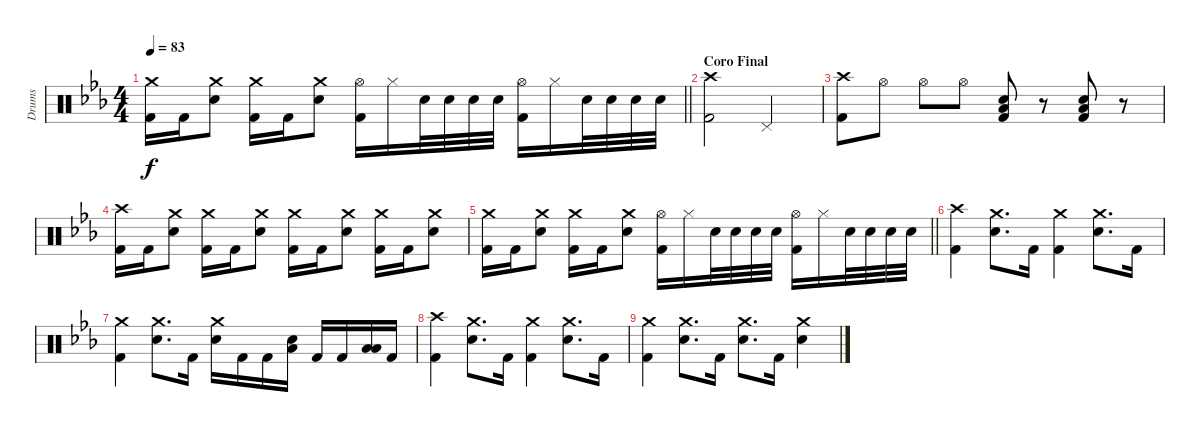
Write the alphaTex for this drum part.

\track ("Drums" "Drums") {instrument percussion}
\staff {score}
\articulation defaults
\ts (4 4)
\tempo 83
\clef neutral
\barLineRight lightlight
\ks eb
("Crash medium (hit)" "Kick (hit) 2").16{dy f} "Kick (hit) 2".16 ("Crash medium (hit)" "Snare (hit) 2").8 ("Crash medium (hit)" "Kick (hit) 2").16 "Kick (hit) 2".16 ("Crash medium (hit)" "Snare (hit) 2").8 ("Hi-Hat (open)" "Kick (hit) 2").16 "Hi-Hat (closed)".16 "Snare (hit) 2".32 "Snare (hit) 2".32 "Snare (hit) 2".32 "Snare (hit) 2".32 ("Hi-Hat (open)" "Kick (hit) 2").16 "Hi-Hat (closed)".16 "Snare (hit) 2".32 "Snare (hit) 2".32 "Snare (hit) 2".32 "Snare (hit) 2".32 |
\section ("" "Coro Final")
("Crash high (hit)" "Kick (hit) 2").2 "Pedal Hi-Hat (hit)".2 |
("Crash high (hit)" "Kick (hit) 2").8 "Hi-Hat (open)".8 "Hi-Hat (open)".8 "Hi-Hat (open)".8 ("Low Floor Tom (hit)" "Snare (hit) 2" "Kick (hit) 2").8 r.8 ("Low Floor Tom (hit)" "Snare (hit) 2" "Kick (hit) 2").8 r.8 |
("Crash high (hit)" "Kick (hit) 2").16 "Kick (hit) 2".16 ("Crash medium (hit)" "Snare (hit) 2").8 ("Crash medium (hit)" "Kick (hit) 2").16 "Kick (hit) 2".16 ("Crash medium (hit)" "Snare (hit) 2").8 ("Crash medium (hit)" "Kick (hit) 2").16 "Kick (hit) 2".16 ("Crash medium (hit)" "Snare (hit) 2").8 ("Crash medium (hit)" "Kick (hit) 2").16 "Kick (hit) 2".16 ("Crash medium (hit)" "Snare (hit) 2").8 |
\barLineRight lightlight
("Crash medium (hit)" "Kick (hit) 2").16 "Kick (hit) 2".16 ("Crash medium (hit)" "Snare (hit) 2").8 ("Crash medium (hit)" "Kick (hit) 2").16 "Kick (hit) 2".16 ("Crash medium (hit)" "Snare (hit) 2").8 ("Hi-Hat (open)" "Kick (hit) 2").16 "Hi-Hat (closed)".16 "Snare (hit) 2".32 "Snare (hit) 2".32 "Snare (hit) 2".32 "Snare (hit) 2".32 ("Hi-Hat (open)" "Kick (hit) 2").16 "Hi-Hat (closed)".16 "Snare (hit) 2".32 "Snare (hit) 2".32 "Snare (hit) 2".32 "Snare (hit) 2".32 |
("Crash high (hit)" "Kick (hit) 2").4 ("Crash medium (hit)" "Snare (hit) 2").8{d} "Kick (hit) 2".16 ("Crash medium (hit)" "Kick (hit) 2").4 ("Crash medium (hit)" "Snare (hit) 2").8{d} "Kick (hit) 2".16 |
("Crash medium (hit)" "Kick (hit) 2").4 ("Crash medium (hit)" "Snare (hit) 2").8{d} "Kick (hit) 2".16 ("Crash medium (hit)" "Snare (hit) 2").16 "Kick (hit) 2".16 "Kick (hit) 2".16 ("Low Tom (hit)" "Snare (hit) 2").16 "Kick (hit) 2".16 "Kick (hit) 2".16 ("Low Tom (hit)" "Low Floor Tom (hit)").16 "Kick (hit) 2".16 |
("Crash high (hit)" "Kick (hit) 2").4 ("Crash medium (hit)" "Snare (hit) 2").8{d} "Kick (hit) 2".16 ("Crash medium (hit)" "Kick (hit) 2").4 ("Crash medium (hit)" "Snare (hit) 2").8{d} "Kick (hit) 2".16 |
("Crash medium (hit)" "Kick (hit) 2").4 ("Crash medium (hit)" "Snare (hit) 2").8{d} "Kick (hit) 2".16 ("Crash medium (hit)" "Snare (hit) 2").8{d} "Kick (hit) 2".16 ("Crash medium (hit)" "Snare (hit) 2").4
